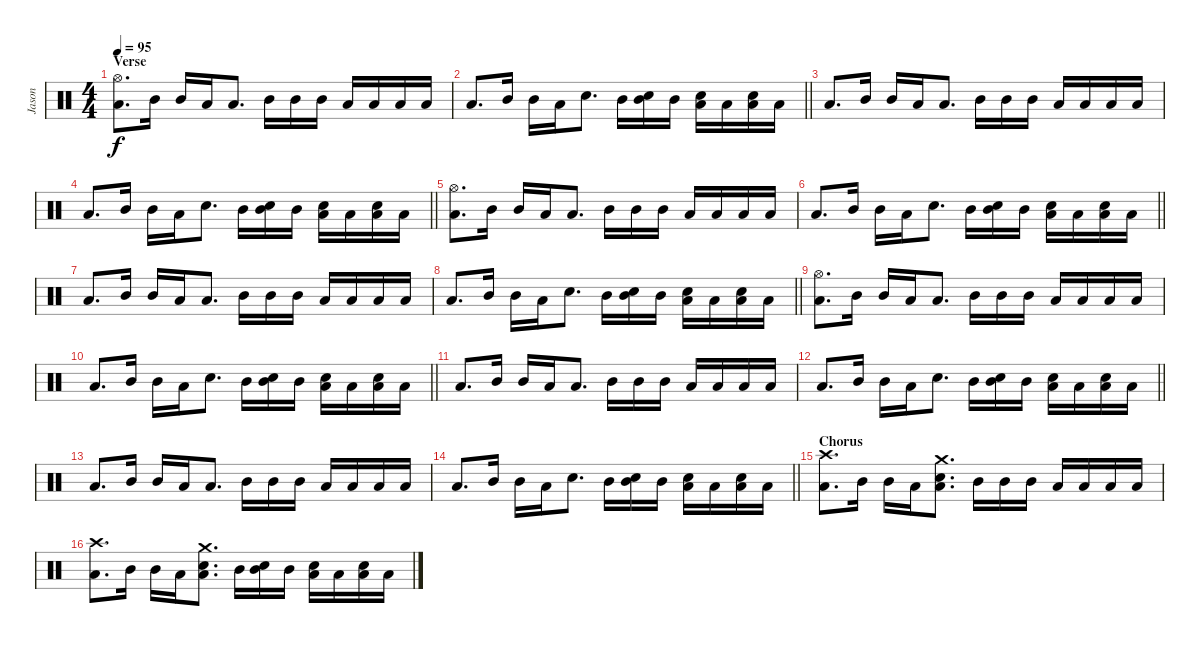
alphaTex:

\track ("Jason" "Jason") {instrument percussion}
\staff {score}
\articulation defaults
\ts (4 4)
\section ("" "Verse")
\tempo 95
\clef neutral
\ks c
("Hi-Hat (open)" "Low Floor Tom (hit)").8{d dy f} "Mid Tom (hit)".16 "Mid Tom (hit)".16 "Low Tom (hit)".16 "Low Floor Tom (hit)".8{d} "Mid Tom (hit)".16 "Mid Tom (hit)".16 "Mid Tom (hit)".16 "Low Tom (hit)".16 "Low Tom (hit)".16 "Low Tom (hit)".16 "Low Tom (hit)".16 |
\barLineRight lightlight "Low Floor Tom (hit)".8{d} "Mid Tom (hit)".16 "Mid Tom (hit)".16 "Low Tom (hit)".16 "Electric Snare (hit)".8{d} "Mid Tom (hit)".16
("Mid Tom (hit)" "Electric Snare (hit)").16 "Mid Tom (hit)".16 ("Low Tom (hit)" "Electric Snare (hit)").16 "Low Tom (hit)".16 ("Low Tom (hit)" "Electric Snare (hit)").16 "Low Tom (hit)".16 |
"Low Floor Tom (hit)".8{d} "Mid Tom (hit)".16 "Mid Tom (hit)".16 "Low Tom (hit)".16 "Low Floor Tom (hit)".8{d} "Mid Tom (hit)".16 "Mid Tom (hit)".16 "Mid Tom (hit)".16 "Low Tom (hit)".16 "Low Tom (hit)".16 "Low Tom (hit)".16 "Low Tom (hit)".16 |
\barLineRight lightlight "Low Floor Tom (hit)".8{d} "Mid Tom (hit)".16 "Mid Tom (hit)".16 "Low Tom (hit)".16 "Electric Snare (hit)".8{d} "Mid Tom (hit)".16
("Mid Tom (hit)" "Electric Snare (hit)").16 "Mid Tom (hit)".16 ("Low Tom (hit)" "Electric Snare (hit)").16 "Low Tom (hit)".16 ("Low Tom (hit)" "Electric Snare (hit)").16 "Low Tom (hit)".16 |
("Hi-Hat (open)" "Low Floor Tom (hit)").8{d} "Mid Tom (hit)".16 "Mid Tom (hit)".16 "Low Tom (hit)".16 "Low Floor Tom (hit)".8{d} "Mid Tom (hit)".16 "Mid Tom (hit)".16 "Mid Tom (hit)".16 "Low Tom (hit)".16 "Low Tom (hit)".16 "Low Tom (hit)".16 "Low Tom (hit)".16 |
\barLineRight lightlight "Low Floor Tom (hit)".8{d} "Mid Tom (hit)".16 "Mid Tom (hit)".16 "Low Tom (hit)".16 "Electric Snare (hit)".8{d} "Mid Tom (hit)".16
("Mid Tom (hit)" "Electric Snare (hit)").16 "Mid Tom (hit)".16 ("Low Tom (hit)" "Electric Snare (hit)").16 "Low Tom (hit)".16 ("Low Tom (hit)" "Electric Snare (hit)").16 "Low Tom (hit)".16 |
"Low Floor Tom (hit)".8{d} "Mid Tom (hit)".16 "Mid Tom (hit)".16 "Low Tom (hit)".16 "Low Floor Tom (hit)".8{d} "Mid Tom (hit)".16 "Mid Tom (hit)".16 "Mid Tom (hit)".16 "Low Tom (hit)".16 "Low Tom (hit)".16 "Low Tom (hit)".16 "Low Tom (hit)".16 |
\barLineRight lightlight "Low Floor Tom (hit)".8{d} "Mid Tom (hit)".16 "Mid Tom (hit)".16 "Low Tom (hit)".16 "Electric Snare (hit)".8{d} "Mid Tom (hit)".16
("Mid Tom (hit)" "Electric Snare (hit)").16 "Mid Tom (hit)".16 ("Low Tom (hit)" "Electric Snare (hit)").16 "Low Tom (hit)".16 ("Low Tom (hit)" "Electric Snare (hit)").16 "Low Tom (hit)".16 |
("Hi-Hat (open)" "Low Floor Tom (hit)").8{d} "Mid Tom (hit)".16 "Mid Tom (hit)".16 "Low Tom (hit)".16 "Low Floor Tom (hit)".8{d} "Mid Tom (hit)".16 "Mid Tom (hit)".16 "Mid Tom (hit)".16 "Low Tom (hit)".16 "Low Tom (hit)".16 "Low Tom (hit)".16 "Low Tom (hit)".16 |
\barLineRight lightlight "Low Floor Tom (hit)".8{d} "Mid Tom (hit)".16 "Mid Tom (hit)".16 "Low Tom (hit)".16 "Electric Snare (hit)".8{d} "Mid Tom (hit)".16
("Mid Tom (hit)" "Electric Snare (hit)").16 "Mid Tom (hit)".16 ("Low Tom (hit)" "Electric Snare (hit)").16 "Low Tom (hit)".16 ("Low Tom (hit)" "Electric Snare (hit)").16 "Low Tom (hit)".16 |
"Low Floor Tom (hit)".8{d} "Mid Tom (hit)".16 "Mid Tom (hit)".16 "Low Tom (hit)".16 "Low Floor Tom (hit)".8{d} "Mid Tom (hit)".16 "Mid Tom (hit)".16 "Mid Tom (hit)".16 "Low Tom (hit)".16 "Low Tom (hit)".16 "Low Tom (hit)".16 "Low Tom (hit)".16 |
\barLineRight lightlight "Low Floor Tom (hit)".8{d} "Mid Tom (hit)".16 "Mid Tom (hit)".16 "Low Tom (hit)".16 "Electric Snare (hit)".8{d} "Mid Tom (hit)".16
("Mid Tom (hit)" "Electric Snare (hit)").16 "Mid Tom (hit)".16 ("Low Tom (hit)" "Electric Snare (hit)").16 "Low Tom (hit)".16 ("Low Tom (hit)" "Electric Snare (hit)").16 "Low Tom (hit)".16 |
"Low Floor Tom (hit)".8{d} "Mid Tom (hit)".16 "Mid Tom (hit)".16 "Low Tom (hit)".16 "Low Floor Tom (hit)".8{d} "Mid Tom (hit)".16 "Mid Tom (hit)".16 "Mid Tom (hit)".16 "Low Tom (hit)".16 "Low Tom (hit)".16 "Low Tom (hit)".16 "Low Tom (hit)".16 |
\barLineRight lightlight "Low Floor Tom (hit)".8{d} "Mid Tom (hit)".16 "Mid Tom (hit)".16 "Low Tom (hit)".16 "Electric Snare (hit)".8{d} "Mid Tom (hit)".16
("Mid Tom (hit)" "Electric Snare (hit)").16 "Mid Tom (hit)".16 ("Low Tom (hit)" "Electric Snare (hit)").16 "Low Tom (hit)".16 ("Low Tom (hit)" "Electric Snare (hit)").16 "Low Tom (hit)".16 |
\section ("" "Chorus")
("Crash high (hit)" "Low Floor Tom (hit)").8{d} "Mid Tom (hit)".16 "Mid Tom (hit)".16 "Low Tom (hit)".16 ("Crash medium (hit)" "Electric Snare (hit)" "Low Floor Tom (hit)").8{d} "Mid Tom (hit)".16 "Mid Tom (hit)".16 "Mid Tom (hit)".16 "Low Tom (hit)".16 "Low Tom (hit)".16 "Low Tom (hit)".16 "Low Tom (hit)".16 |
("Crash high (hit)" "Low Floor Tom (hit)").8{d} "Mid Tom (hit)".16 "Mid Tom (hit)".16 "Low Tom (hit)".16 ("Crash medium (hit)" "Electric Snare (hit)" "Low Floor Tom (hit)").8{d} "Mid Tom (hit)".16 ("Mid Tom (hit)" "Electric Snare (hit)").16 "Mid Tom (hit)".16 ("Low Tom (hit)" "Electric Snare (hit)").16 "Low Tom (hit)".16 ("Low Tom (hit)" "Electric Snare (hit)").16 "Low Tom (hit)".16
